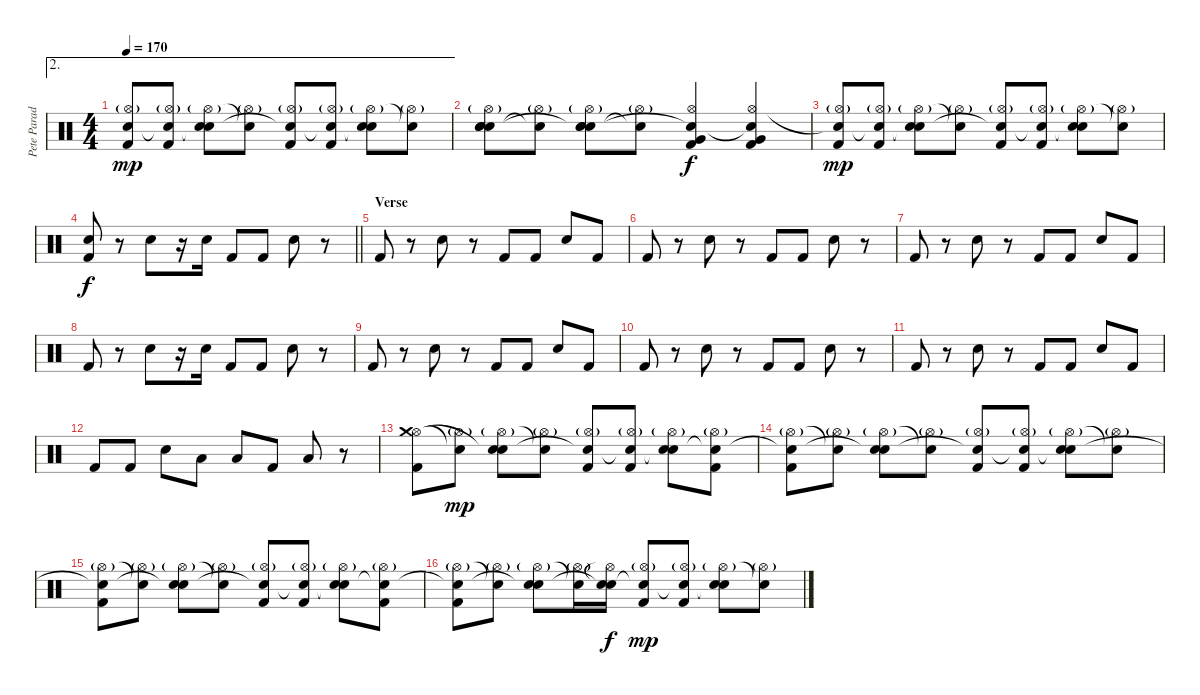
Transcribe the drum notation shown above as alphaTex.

\track ("Pete Parada" "Pete Parad") {instrument percussion}
\staff {score}
\articulation defaults
\ae 2
\ts (4 4)
\tempo 170
\clef neutral
\ks c
("Kick (hit) 2" "Hi-Hat (open)"{g} "Snare (hit)"{t}).8{dy mp} ("Kick (hit) 2" "Hi-Hat (open)"{g} "Snare (hit)"{t}).8 ("Snare (hit) 2" "Hi-Hat (open)"{g} "Snare (hit)"{t}).8 ("Hi-Hat (open)"{g} "Snare (hit)"{t}).8 ("Kick (hit) 2" "Hi-Hat (open)"{g} "Snare (hit)"{t}).8 ("Kick (hit) 2" "Hi-Hat (open)"{g} "Snare (hit)"{t}).8 ("Snare (hit) 2" "Hi-Hat (open)"{g} "Snare (hit)"{t}).8 ("Hi-Hat (open)"{g} "Snare (hit)"{t}).8 |
("Snare (hit) 2" "Snare (hit) 2" "Hi-Hat (open)"{g} "Snare (hit)"{t}).8 ("Hi-Hat (open)"{g} "Snare (hit)"{t}).8 ("Snare (hit) 2" "Snare (hit) 2" "Hi-Hat (open)"{g} "Snare (hit)"{t}).8 ("Hi-Hat (open)"{g} "Snare (hit)"{t}).8 ("Kick (hit) 2" "Very Low Tom (hit)" "Hi-Hat (open)" "Snare (hit)"{t}).4{dy f} ("Kick (hit) 2" "Very Low Tom (hit)" "Hi-Hat (open)" "Snare (hit)"{t}).4 |
("Kick (hit) 2" "Hi-Hat (open)"{g} "Snare (hit)"{t}).8{dy mp} ("Kick (hit) 2" "Hi-Hat (open)"{g} "Snare (hit)"{t}).8 ("Snare (hit) 2" "Hi-Hat (open)"{g} "Snare (hit)"{t}).8 ("Hi-Hat (open)"{g} "Snare (hit)"{t}).8 ("Kick (hit) 2" "Hi-Hat (open)"{g} "Snare (hit)"{t}).8 ("Kick (hit) 2" "Hi-Hat (open)"{g} "Snare (hit)"{t}).8 ("Snare (hit) 2" "Hi-Hat (open)"{g} "Snare (hit)"{t}).8 ("Hi-Hat (open)"{g} "Snare (hit)"{t}).8 |
\barLineRight lightlight
("Snare (hit) 2" "Kick (hit) 2").8{dy f} r.8 "Snare (hit) 2".8 r.16 "Snare (hit) 2".16 "Kick (hit) 2".8 "Kick (hit) 2".8 "Snare (hit) 2".8 r.8 |
\section ("" "Verse")
"Kick (hit) 2".8 r.8 "Snare (hit) 2".8 r.8 "Kick (hit) 2".8 "Kick (hit) 2".8 "Snare (hit) 2".8 "Kick (hit) 2".8 |
"Kick (hit) 2".8 r.8 "Snare (hit) 2".8 r.8 "Kick (hit) 2".8 "Kick (hit) 2".8 "Snare (hit) 2".8 r.8 |
"Kick (hit) 2".8 r.8 "Snare (hit) 2".8 r.8 "Kick (hit) 2".8 "Kick (hit) 2".8 "Snare (hit) 2".8 "Kick (hit) 2".8 |
"Kick (hit) 2".8 r.8 "Snare (hit) 2".8 r.16 "Snare (hit) 2".16 "Kick (hit) 2".8 "Kick (hit) 2".8 "Snare (hit) 2".8 r.8 |
"Kick (hit) 2".8 r.8 "Snare (hit) 2".8 r.8 "Kick (hit) 2".8 "Kick (hit) 2".8 "Snare (hit) 2".8 "Kick (hit) 2".8 |
"Kick (hit) 2".8 r.8 "Snare (hit) 2".8 r.8 "Kick (hit) 2".8 "Kick (hit) 2".8 "Snare (hit) 2".8 r.8 |
"Kick (hit) 2".8 r.8 "Snare (hit) 2".8 r.8 "Kick (hit) 2".8 "Kick (hit) 2".8 "Snare (hit) 2".8 "Kick (hit) 2".8 |
"Kick (hit) 2".8 "Kick (hit) 2".8 "Snare (hit) 2".8 "Low Floor Tom (hit)".8 "Low Tom (hit)".8 "Kick (hit) 2".8 "Low Floor Tom (hit)".8 r.8 |
("Kick (hit) 2" "Hi-Hat (open)" "Crash medium (hit)").8 ("Hi-Hat (open)"{g} "Snare (hit)"{t}).8{dy mp} ("Snare (hit) 2" "Hi-Hat (open)"{g} "Snare (hit)"{t}).8 ("Hi-Hat (open)"{g} "Snare (hit)"{t}).8 ("Kick (hit) 2" "Hi-Hat (open)"{g} "Snare (hit)"{t}).8 ("Kick (hit) 2" "Hi-Hat (open)"{g} "Snare (hit)"{t}).8 ("Snare (hit) 2" "Hi-Hat (open)"{g} "Snare (hit)"{t}).8 ("Kick (hit) 2" "Hi-Hat (open)"{g} "Snare (hit)"{t}).8 |
("Kick (hit) 2" "Hi-Hat (open)"{g} "Snare (hit)"{t}).8 ("Hi-Hat (open)"{g} "Snare (hit)"{t}).8 ("Snare (hit) 2" "Hi-Hat (open)"{g} "Snare (hit)"{t}).8 ("Hi-Hat (open)"{g} "Snare (hit)"{t}).8 ("Kick (hit) 2" "Hi-Hat (open)"{g} "Snare (hit)"{t}).8 ("Kick (hit) 2" "Hi-Hat (open)"{g} "Snare (hit)"{t}).8 ("Snare (hit) 2" "Hi-Hat (open)"{g} "Snare (hit)"{t}).8 ("Hi-Hat (open)"{g} "Snare (hit)"{t}).8 |
("Kick (hit) 2" "Hi-Hat (open)"{g} "Snare (hit)"{t}).8 ("Hi-Hat (open)"{g} "Snare (hit)"{t}).8 ("Snare (hit) 2" "Hi-Hat (open)"{g} "Snare (hit)"{t}).8 ("Hi-Hat (open)"{g} "Snare (hit)"{t}).8 ("Kick (hit) 2" "Hi-Hat (open)"{g} "Snare (hit)"{t}).8 ("Kick (hit) 2" "Hi-Hat (open)"{g} "Snare (hit)"{t}).8 ("Snare (hit) 2" "Hi-Hat (open)"{g} "Snare (hit)"{t}).8 ("Kick (hit) 2" "Hi-Hat (open)"{g} "Snare (hit)"{t}).8 |
("Kick (hit) 2" "Hi-Hat (open)"{g} "Snare (hit)"{t}).8 ("Hi-Hat (open)"{g} "Snare (hit)"{t}).8 ("Snare (hit) 2" "Hi-Hat (open)"{g} "Snare (hit)"{t}).8 ("Hi-Hat (open)"{g} "Snare (hit)"{t}).16 ("Snare (hit) 2" "Hi-Hat (open)"{t} "Snare (hit)"{t}).16{dy f} ("Kick (hit) 2" "Hi-Hat (open)"{g} "Snare (hit)"{t}).8{dy mp} ("Kick (hit) 2" "Hi-Hat (open)"{g} "Snare (hit)"{t}).8 ("Snare (hit) 2" "Hi-Hat (open)"{g} "Snare (hit)"{t}).8 ("Hi-Hat (open)"{g} "Snare (hit)"{t}).8
